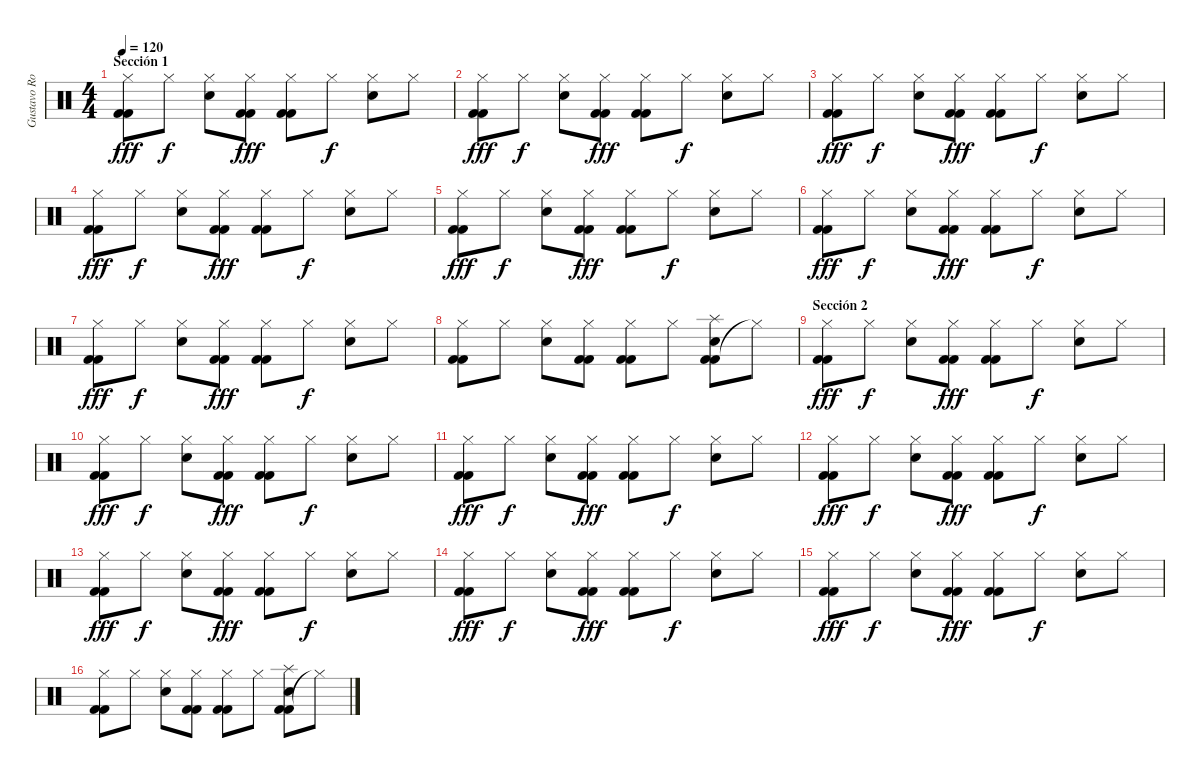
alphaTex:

\track ("Gustavo Rowek" "Gustavo Ro") {instrument percussion}
\staff {score}
\articulation defaults
\ts (4 4)
\section ("" "Sección 1")
\tempo 120
\clef neutral
\ks c
("Kick (hit) 2" "Kick (hit) 2" "Hi-Hat (closed)").8{dy fff} "Hi-Hat (closed)".8{dy f} ("Snare (hit) 2" "Hi-Hat (closed)").8 ("Kick (hit) 2" "Kick (hit) 2" "Hi-Hat (closed)").8{dy fff} ("Kick (hit) 2" "Kick (hit) 2" "Hi-Hat (closed)").8 "Hi-Hat (closed)".8{dy f} ("Snare (hit) 2" "Hi-Hat (closed)").8 "Hi-Hat (closed)".8 |
("Kick (hit) 2" "Kick (hit) 2" "Hi-Hat (closed)").8{dy fff} "Hi-Hat (closed)".8{dy f} ("Snare (hit) 2" "Hi-Hat (closed)").8 ("Kick (hit) 2" "Kick (hit) 2" "Hi-Hat (closed)").8{dy fff} ("Kick (hit) 2" "Kick (hit) 2" "Hi-Hat (closed)").8 "Hi-Hat (closed)".8{dy f} ("Snare (hit) 2" "Hi-Hat (closed)").8 "Hi-Hat (closed)".8 |
("Kick (hit) 2" "Kick (hit) 2" "Hi-Hat (closed)").8{dy fff} "Hi-Hat (closed)".8{dy f} ("Snare (hit) 2" "Hi-Hat (closed)").8 ("Kick (hit) 2" "Kick (hit) 2" "Hi-Hat (closed)").8{dy fff} ("Kick (hit) 2" "Kick (hit) 2" "Hi-Hat (closed)").8 "Hi-Hat (closed)".8{dy f} ("Snare (hit) 2" "Hi-Hat (closed)").8 "Hi-Hat (closed)".8 |
("Kick (hit) 2" "Kick (hit) 2" "Hi-Hat (closed)").8{dy fff} "Hi-Hat (closed)".8{dy f} ("Snare (hit) 2" "Hi-Hat (closed)").8 ("Kick (hit) 2" "Kick (hit) 2" "Hi-Hat (closed)").8{dy fff} ("Kick (hit) 2" "Kick (hit) 2" "Hi-Hat (closed)").8 "Hi-Hat (closed)".8{dy f} ("Snare (hit) 2" "Hi-Hat (closed)").8 "Hi-Hat (closed)".8 |
("Kick (hit) 2" "Kick (hit) 2" "Hi-Hat (closed)").8{dy fff} "Hi-Hat (closed)".8{dy f} ("Snare (hit) 2" "Hi-Hat (closed)").8 ("Kick (hit) 2" "Kick (hit) 2" "Hi-Hat (closed)").8{dy fff} ("Kick (hit) 2" "Kick (hit) 2" "Hi-Hat (closed)").8 "Hi-Hat (closed)".8{dy f} ("Snare (hit) 2" "Hi-Hat (closed)").8 "Hi-Hat (closed)".8 |
("Kick (hit) 2" "Kick (hit) 2" "Hi-Hat (closed)").8{dy fff} "Hi-Hat (closed)".8{dy f} ("Snare (hit) 2" "Hi-Hat (closed)").8 ("Kick (hit) 2" "Kick (hit) 2" "Hi-Hat (closed)").8{dy fff} ("Kick (hit) 2" "Kick (hit) 2" "Hi-Hat (closed)").8 "Hi-Hat (closed)".8{dy f} ("Snare (hit) 2" "Hi-Hat (closed)").8 "Hi-Hat (closed)".8 |
("Kick (hit) 2" "Kick (hit) 2" "Hi-Hat (closed)").8{dy fff} "Hi-Hat (closed)".8{dy f} ("Snare (hit) 2" "Hi-Hat (closed)").8 ("Kick (hit) 2" "Kick (hit) 2" "Hi-Hat (closed)").8{dy fff} ("Kick (hit) 2" "Kick (hit) 2" "Hi-Hat (closed)").8 "Hi-Hat (closed)".8{dy f} ("Snare (hit) 2" "Hi-Hat (closed)").8 "Hi-Hat (closed)".8 |
("Kick (hit) 2" "Kick (hit) 2" "Hi-Hat (closed)").8 "Hi-Hat (closed)".8 ("Snare (hit) 2" "Hi-Hat (closed)").8 ("Kick (hit) 2" "Kick (hit) 2" "Hi-Hat (closed)").8 ("Kick (hit) 2" "Kick (hit) 2" "Hi-Hat (closed)").8 "Hi-Hat (closed)".8 ("Kick (hit) 2" "Kick (hit) 2" "Snare (hit) 2" "Splash (hit)").8 "Hi-Hat (closed)"{t}.8 |
\section ("" "Sección 2")
("Kick (hit) 2" "Kick (hit) 2" "Hi-Hat (closed)").8{dy fff} "Hi-Hat (closed)".8{dy f} ("Snare (hit) 2" "Hi-Hat (closed)").8 ("Kick (hit) 2" "Kick (hit) 2" "Hi-Hat (closed)").8{dy fff} ("Kick (hit) 2" "Kick (hit) 2" "Hi-Hat (closed)").8 "Hi-Hat (closed)".8{dy f} ("Snare (hit) 2" "Hi-Hat (closed)").8 "Hi-Hat (closed)".8 |
("Kick (hit) 2" "Kick (hit) 2" "Hi-Hat (closed)").8{dy fff} "Hi-Hat (closed)".8{dy f} ("Snare (hit) 2" "Hi-Hat (closed)").8 ("Kick (hit) 2" "Kick (hit) 2" "Hi-Hat (closed)").8{dy fff} ("Kick (hit) 2" "Kick (hit) 2" "Hi-Hat (closed)").8 "Hi-Hat (closed)".8{dy f} ("Snare (hit) 2" "Hi-Hat (closed)").8 "Hi-Hat (closed)".8 |
("Kick (hit) 2" "Kick (hit) 2" "Hi-Hat (closed)").8{dy fff} "Hi-Hat (closed)".8{dy f} ("Snare (hit) 2" "Hi-Hat (closed)").8 ("Kick (hit) 2" "Kick (hit) 2" "Hi-Hat (closed)").8{dy fff} ("Kick (hit) 2" "Kick (hit) 2" "Hi-Hat (closed)").8 "Hi-Hat (closed)".8{dy f} ("Snare (hit) 2" "Hi-Hat (closed)").8 "Hi-Hat (closed)".8 |
("Kick (hit) 2" "Kick (hit) 2" "Hi-Hat (closed)").8{dy fff} "Hi-Hat (closed)".8{dy f} ("Snare (hit) 2" "Hi-Hat (closed)").8 ("Kick (hit) 2" "Kick (hit) 2" "Hi-Hat (closed)").8{dy fff} ("Kick (hit) 2" "Kick (hit) 2" "Hi-Hat (closed)").8 "Hi-Hat (closed)".8{dy f} ("Snare (hit) 2" "Hi-Hat (closed)").8 "Hi-Hat (closed)".8 |
("Kick (hit) 2" "Kick (hit) 2" "Hi-Hat (closed)").8{dy fff} "Hi-Hat (closed)".8{dy f} ("Snare (hit) 2" "Hi-Hat (closed)").8 ("Kick (hit) 2" "Kick (hit) 2" "Hi-Hat (closed)").8{dy fff} ("Kick (hit) 2" "Kick (hit) 2" "Hi-Hat (closed)").8 "Hi-Hat (closed)".8{dy f} ("Snare (hit) 2" "Hi-Hat (closed)").8 "Hi-Hat (closed)".8 |
("Kick (hit) 2" "Kick (hit) 2" "Hi-Hat (closed)").8{dy fff} "Hi-Hat (closed)".8{dy f} ("Snare (hit) 2" "Hi-Hat (closed)").8 ("Kick (hit) 2" "Kick (hit) 2" "Hi-Hat (closed)").8{dy fff} ("Kick (hit) 2" "Kick (hit) 2" "Hi-Hat (closed)").8 "Hi-Hat (closed)".8{dy f} ("Snare (hit) 2" "Hi-Hat (closed)").8 "Hi-Hat (closed)".8 |
("Kick (hit) 2" "Kick (hit) 2" "Hi-Hat (closed)").8{dy fff} "Hi-Hat (closed)".8{dy f} ("Snare (hit) 2" "Hi-Hat (closed)").8 ("Kick (hit) 2" "Kick (hit) 2" "Hi-Hat (closed)").8{dy fff} ("Kick (hit) 2" "Kick (hit) 2" "Hi-Hat (closed)").8 "Hi-Hat (closed)".8{dy f} ("Snare (hit) 2" "Hi-Hat (closed)").8 "Hi-Hat (closed)".8 |
("Kick (hit) 2" "Kick (hit) 2" "Hi-Hat (closed)").8 "Hi-Hat (closed)".8 ("Snare (hit) 2" "Hi-Hat (closed)").8 ("Kick (hit) 2" "Kick (hit) 2" "Hi-Hat (closed)").8 ("Kick (hit) 2" "Kick (hit) 2" "Hi-Hat (closed)").8 "Hi-Hat (closed)".8 ("Kick (hit) 2" "Kick (hit) 2" "Snare (hit) 2" "Splash (hit)").8 "Hi-Hat (closed)"{t}.8
